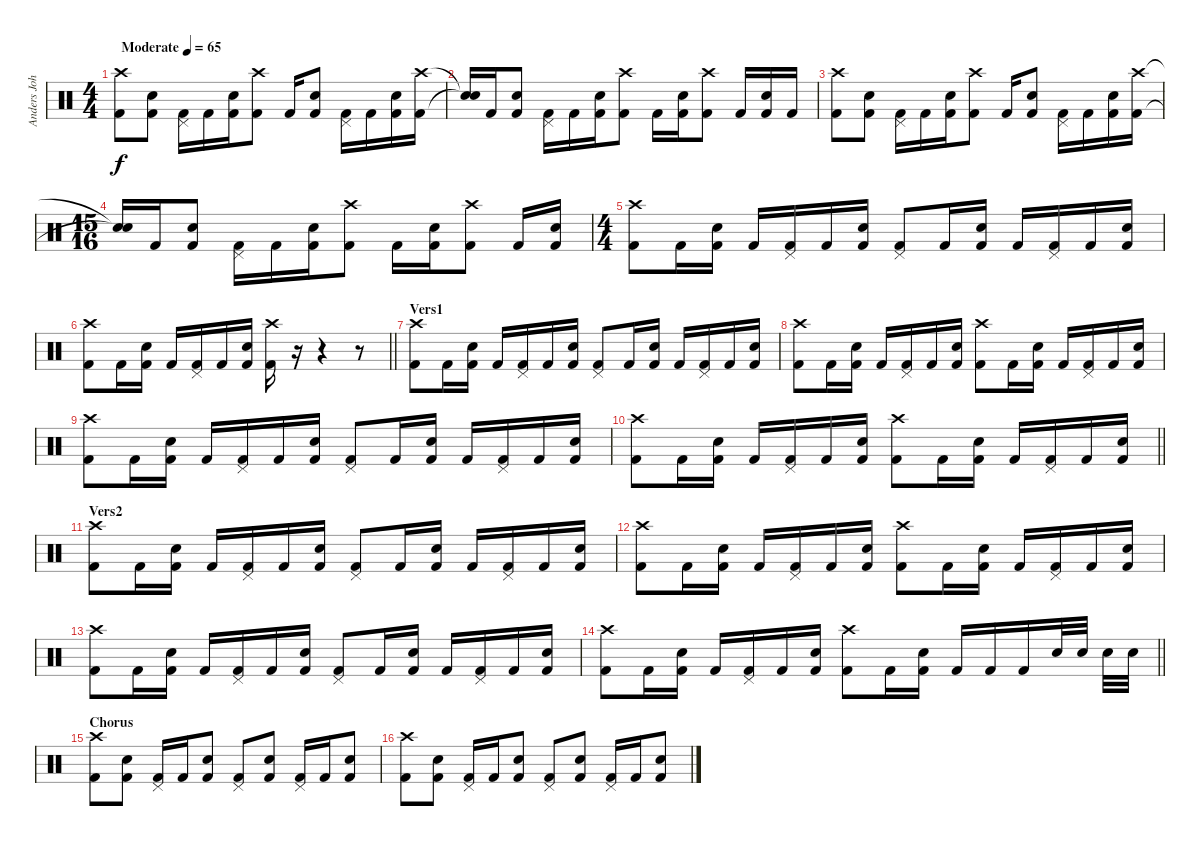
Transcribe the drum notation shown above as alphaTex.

\track ("Anders Johansson" "Anders Joh") {instrument percussion}
\staff {score}
\articulation defaults
\ts (4 4)
\tempo (65 "Moderate")
\clef neutral
\ks c
("Crash high (hit)" "Kick (hit) 2").8{dy f} ("Electric Snare (hit)" "Kick (hit) 2").8 ("Pedal Hi-Hat (hit)" "Kick (hit) 2").16 "Kick (hit) 2".16 ("Electric Snare (hit)" "Kick (hit) 2").16 ("Crash high (hit)" "Kick (hit) 2").8 "Kick (hit) 2".16 ("Electric Snare (hit)" "Kick (hit) 2").8 ("Pedal Hi-Hat (hit)" "Kick (hit) 2").16 "Kick (hit) 2".16 ("Electric Snare (hit)" "Kick (hit) 2").16 ("Crash high (hit)" "Kick (hit) 2").16 |
("Snare (hit)"{t} "Snare (hit)"{t}).16 "Kick (hit) 2".16 ("Electric Snare (hit)" "Kick (hit) 2").8 ("Pedal Hi-Hat (hit)" "Kick (hit) 2").16 "Kick (hit) 2".16 ("Electric Snare (hit)" "Kick (hit) 2").16 ("Crash high (hit)" "Kick (hit) 2").8 "Kick (hit) 2".16 ("Electric Snare (hit)" "Kick (hit) 2").16 ("Crash high (hit)" "Kick (hit) 2").8 "Kick (hit) 2".16 ("Electric Snare (hit)" "Kick (hit) 2").16 "Kick (hit) 2".16 |
("Crash high (hit)" "Kick (hit) 2").8 ("Electric Snare (hit)" "Kick (hit) 2").8 ("Pedal Hi-Hat (hit)" "Kick (hit) 2").16 "Kick (hit) 2".16 ("Electric Snare (hit)" "Kick (hit) 2").16 ("Crash high (hit)" "Kick (hit) 2").8 "Kick (hit) 2".16 ("Electric Snare (hit)" "Kick (hit) 2").8 ("Pedal Hi-Hat (hit)" "Kick (hit) 2").16 "Kick (hit) 2".16 ("Electric Snare (hit)" "Kick (hit) 2").16 ("Crash high (hit)" "Kick (hit) 2").16 |
\ts (15 16)
("Snare (hit)"{t} "Snare (hit)"{t}).16 "Kick (hit) 2".16 ("Electric Snare (hit)" "Kick (hit) 2").8 ("Pedal Hi-Hat (hit)" "Kick (hit) 2").16 "Kick (hit) 2".16 ("Electric Snare (hit)" "Kick (hit) 2").16 ("Crash high (hit)" "Kick (hit) 2").8 "Kick (hit) 2".16 ("Electric Snare (hit)" "Kick (hit) 2").16 ("Crash high (hit)" "Kick (hit) 2").8 "Kick (hit) 2".16 ("Electric Snare (hit)" "Kick (hit) 2").16 |
\ts (4 4)
("Crash high (hit)" "Kick (hit) 2").8 "Kick (hit) 2".16 ("Electric Snare (hit)" "Kick (hit) 2").16 "Kick (hit) 2".16 ("Pedal Hi-Hat (hit)" "Kick (hit) 2").16 "Kick (hit) 2".16 ("Electric Snare (hit)" "Kick (hit) 2").16 ("Pedal Hi-Hat (hit)" "Kick (hit) 2").8 "Kick (hit) 2".16 ("Electric Snare (hit)" "Kick (hit) 2").16 "Kick (hit) 2".16 ("Pedal Hi-Hat (hit)" "Kick (hit) 2").16 "Kick (hit) 2".16 ("Electric Snare (hit)" "Kick (hit) 2").16 |
\barLineRight lightlight
("Crash high (hit)" "Kick (hit) 2").8 "Kick (hit) 2".16 ("Electric Snare (hit)" "Kick (hit) 2").16 "Kick (hit) 2".16 ("Pedal Hi-Hat (hit)" "Kick (hit) 2").16 "Kick (hit) 2".16 ("Electric Snare (hit)" "Kick (hit) 2").16 ("Crash high (hit)" "Kick (hit) 2").16 r.16 r.4 r.8 |
\section ("" "Vers1")
("Crash high (hit)" "Kick (hit) 2").8 "Kick (hit) 2".16 ("Electric Snare (hit)" "Kick (hit) 2").16 "Kick (hit) 2".16 ("Pedal Hi-Hat (hit)" "Kick (hit) 2").16 "Kick (hit) 2".16 ("Electric Snare (hit)" "Kick (hit) 2").16 ("Pedal Hi-Hat (hit)" "Kick (hit) 2").8 "Kick (hit) 2".16 ("Electric Snare (hit)" "Kick (hit) 2").16 "Kick (hit) 2".16 ("Pedal Hi-Hat (hit)" "Kick (hit) 2").16 "Kick (hit) 2".16 ("Electric Snare (hit)" "Kick (hit) 2").16 |
("Crash high (hit)" "Kick (hit) 2").8 "Kick (hit) 2".16 ("Electric Snare (hit)" "Kick (hit) 2").16 "Kick (hit) 2".16 ("Pedal Hi-Hat (hit)" "Kick (hit) 2").16 "Kick (hit) 2".16 ("Electric Snare (hit)" "Kick (hit) 2").16 ("Crash high (hit)" "Kick (hit) 2").8 "Kick (hit) 2".16 ("Electric Snare (hit)" "Kick (hit) 2").16 "Kick (hit) 2".16 ("Pedal Hi-Hat (hit)" "Kick (hit) 2").16 "Kick (hit) 2".16 ("Electric Snare (hit)" "Kick (hit) 2").16 |
("Crash high (hit)" "Kick (hit) 2").8 "Kick (hit) 2".16 ("Electric Snare (hit)" "Kick (hit) 2").16 "Kick (hit) 2".16 ("Pedal Hi-Hat (hit)" "Kick (hit) 2").16 "Kick (hit) 2".16 ("Electric Snare (hit)" "Kick (hit) 2").16 ("Pedal Hi-Hat (hit)" "Kick (hit) 2").8 "Kick (hit) 2".16 ("Electric Snare (hit)" "Kick (hit) 2").16 "Kick (hit) 2".16 ("Pedal Hi-Hat (hit)" "Kick (hit) 2").16 "Kick (hit) 2".16 ("Electric Snare (hit)" "Kick (hit) 2").16 |
\barLineRight lightlight
("Crash high (hit)" "Kick (hit) 2").8 "Kick (hit) 2".16 ("Electric Snare (hit)" "Kick (hit) 2").16 "Kick (hit) 2".16 ("Pedal Hi-Hat (hit)" "Kick (hit) 2").16 "Kick (hit) 2".16 ("Electric Snare (hit)" "Kick (hit) 2").16 ("Crash high (hit)" "Kick (hit) 2").8 "Kick (hit) 2".16 ("Electric Snare (hit)" "Kick (hit) 2").16 "Kick (hit) 2".16 ("Pedal Hi-Hat (hit)" "Kick (hit) 2").16 "Kick (hit) 2".16 ("Electric Snare (hit)" "Kick (hit) 2").16 |
\section ("" "Vers2")
("Crash high (hit)" "Kick (hit) 2").8 "Kick (hit) 2".16 ("Electric Snare (hit)" "Kick (hit) 2").16 "Kick (hit) 2".16 ("Pedal Hi-Hat (hit)" "Kick (hit) 2").16 "Kick (hit) 2".16 ("Electric Snare (hit)" "Kick (hit) 2").16 ("Pedal Hi-Hat (hit)" "Kick (hit) 2").8 "Kick (hit) 2".16 ("Electric Snare (hit)" "Kick (hit) 2").16 "Kick (hit) 2".16 ("Pedal Hi-Hat (hit)" "Kick (hit) 2").16 "Kick (hit) 2".16 ("Electric Snare (hit)" "Kick (hit) 2").16 |
("Crash high (hit)" "Kick (hit) 2").8 "Kick (hit) 2".16 ("Electric Snare (hit)" "Kick (hit) 2").16 "Kick (hit) 2".16 ("Pedal Hi-Hat (hit)" "Kick (hit) 2").16 "Kick (hit) 2".16 ("Electric Snare (hit)" "Kick (hit) 2").16 ("Crash high (hit)" "Kick (hit) 2").8 "Kick (hit) 2".16 ("Electric Snare (hit)" "Kick (hit) 2").16 "Kick (hit) 2".16 ("Pedal Hi-Hat (hit)" "Kick (hit) 2").16 "Kick (hit) 2".16 ("Electric Snare (hit)" "Kick (hit) 2").16 |
("Crash high (hit)" "Kick (hit) 2").8 "Kick (hit) 2".16 ("Electric Snare (hit)" "Kick (hit) 2").16 "Kick (hit) 2".16 ("Pedal Hi-Hat (hit)" "Kick (hit) 2").16 "Kick (hit) 2".16 ("Electric Snare (hit)" "Kick (hit) 2").16 ("Pedal Hi-Hat (hit)" "Kick (hit) 2").8 "Kick (hit) 2".16 ("Electric Snare (hit)" "Kick (hit) 2").16 "Kick (hit) 2".16 ("Pedal Hi-Hat (hit)" "Kick (hit) 2").16 "Kick (hit) 2".16 ("Electric Snare (hit)" "Kick (hit) 2").16 |
\barLineRight lightlight
("Crash high (hit)" "Kick (hit) 2").8 "Kick (hit) 2".16 ("Electric Snare (hit)" "Kick (hit) 2").16 "Kick (hit) 2".16 ("Pedal Hi-Hat (hit)" "Kick (hit) 2").16 "Kick (hit) 2".16 ("Electric Snare (hit)" "Kick (hit) 2").16 ("Crash high (hit)" "Kick (hit) 2").8 "Kick (hit) 2".16 ("Electric Snare (hit)" "Kick (hit) 2").16 "Kick (hit) 2".16 "Kick (hit) 2".16 "Kick (hit) 2".16 "Electric Snare (hit)".32 "Electric Snare (hit)".32 "Electric Snare (hit)".32 "Electric Snare (hit)".32 |
\section ("" "Chorus")
("Crash high (hit)" "Kick (hit) 2").8 ("Electric Snare (hit)" "Kick (hit) 2").8 ("Pedal Hi-Hat (hit)" "Kick (hit) 2").16 "Kick (hit) 2".16 ("Electric Snare (hit)" "Kick (hit) 2").8 ("Pedal Hi-Hat (hit)" "Kick (hit) 2").8 ("Electric Snare (hit)" "Kick (hit) 2").8 ("Pedal Hi-Hat (hit)" "Kick (hit) 2").16 "Kick (hit) 2".16 ("Electric Snare (hit)" "Kick (hit) 2").8 |
("Crash high (hit)" "Kick (hit) 2").8 ("Electric Snare (hit)" "Kick (hit) 2").8 ("Pedal Hi-Hat (hit)" "Kick (hit) 2").16 "Kick (hit) 2".16 ("Electric Snare (hit)" "Kick (hit) 2").8 ("Pedal Hi-Hat (hit)" "Kick (hit) 2").8 ("Electric Snare (hit)" "Kick (hit) 2").8 ("Pedal Hi-Hat (hit)" "Kick (hit) 2").16 "Kick (hit) 2".16 ("Electric Snare (hit)" "Kick (hit) 2").8
